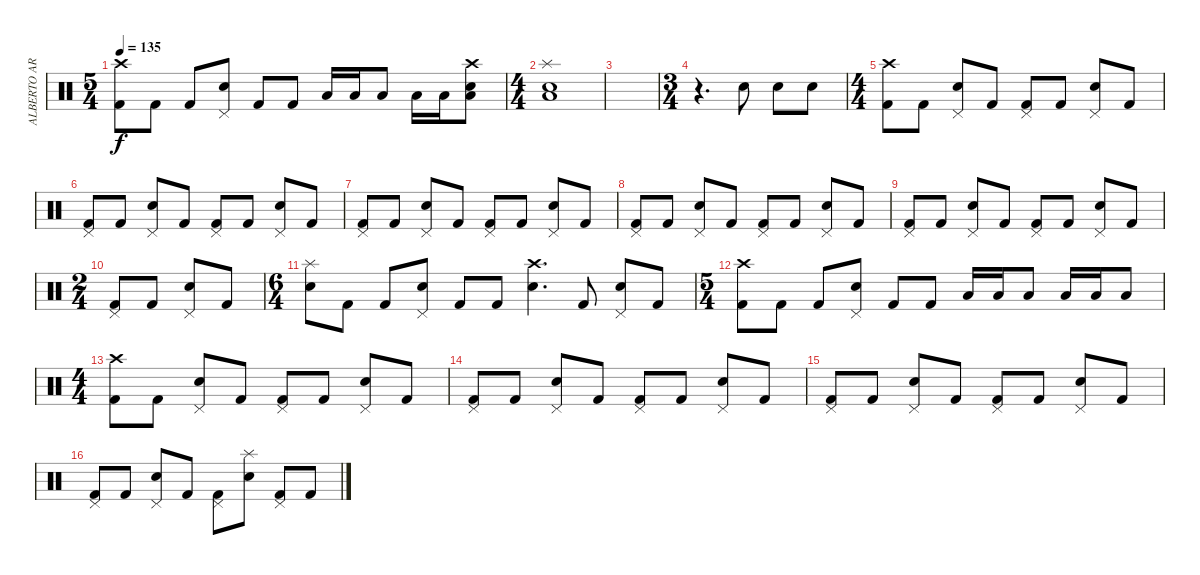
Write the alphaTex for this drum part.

\track ("ALBERTO ARDINES" "ALBERTO AR") {instrument percussion}
\staff {score}
\articulation defaults
\ts (5 4)
\tempo 135
\clef neutral
\ks c
("Crash high (hit)" "Kick (hit) 2").8{dy f} "Kick (hit) 2".8 "Kick (hit) 2".8 ("Pedal Hi-Hat (hit)" "Electric Snare (hit)").8 "Kick (hit) 2".8 "Kick (hit) 2".8 "Low Tom (hit)".16 "Low Tom (hit)".16 "Low Tom (hit)".8 "Low Tom (hit)".16 "Low Tom (hit)".16 ("Crash high (hit)" "Low Floor Tom (hit)" "Electric Snare (hit)").8 |
\ts (4 4)
("Splash (hit)" "Low Floor Tom (hit)" "Electric Snare (hit)").1 |
|
\ts (3 4)
r.4{d} "Electric Snare (hit)".8 "Electric Snare (hit)".8 "Electric Snare (hit)".8 |
\ts (4 4)
("Crash high (hit)" "Kick (hit) 2").8 "Kick (hit) 2".8 ("Pedal Hi-Hat (hit)" "Electric Snare (hit)").8 "Kick (hit) 2".8 ("Pedal Hi-Hat (hit)" "Kick (hit) 2").8 "Kick (hit) 2".8 ("Pedal Hi-Hat (hit)" "Electric Snare (hit)").8 "Kick (hit) 2".8 |
("Pedal Hi-Hat (hit)" "Kick (hit) 2").8 "Kick (hit) 2".8 ("Pedal Hi-Hat (hit)" "Electric Snare (hit)").8 "Kick (hit) 2".8 ("Pedal Hi-Hat (hit)" "Kick (hit) 2").8 "Kick (hit) 2".8 ("Pedal Hi-Hat (hit)" "Electric Snare (hit)").8 "Kick (hit) 2".8 |
("Pedal Hi-Hat (hit)" "Kick (hit) 2").8 "Kick (hit) 2".8 ("Pedal Hi-Hat (hit)" "Electric Snare (hit)").8 "Kick (hit) 2".8 ("Pedal Hi-Hat (hit)" "Kick (hit) 2").8 "Kick (hit) 2".8 ("Pedal Hi-Hat (hit)" "Electric Snare (hit)").8 "Kick (hit) 2".8 |
("Pedal Hi-Hat (hit)" "Kick (hit) 2").8 "Kick (hit) 2".8 ("Pedal Hi-Hat (hit)" "Electric Snare (hit)").8 "Kick (hit) 2".8 ("Pedal Hi-Hat (hit)" "Kick (hit) 2").8 "Kick (hit) 2".8 ("Pedal Hi-Hat (hit)" "Electric Snare (hit)").8 "Kick (hit) 2".8 |
("Pedal Hi-Hat (hit)" "Kick (hit) 2").8 "Kick (hit) 2".8 ("Pedal Hi-Hat (hit)" "Electric Snare (hit)").8 "Kick (hit) 2".8 ("Pedal Hi-Hat (hit)" "Kick (hit) 2").8 "Kick (hit) 2".8 ("Pedal Hi-Hat (hit)" "Electric Snare (hit)").8 "Kick (hit) 2".8 |
\ts (2 4)
("Pedal Hi-Hat (hit)" "Kick (hit) 2").8 "Kick (hit) 2".8 ("Pedal Hi-Hat (hit)" "Electric Snare (hit)").8 "Kick (hit) 2".8 |
\ts (6 4)
("Splash (hit)" "Electric Snare (hit)").8 "Kick (hit) 2".8 "Kick (hit) 2".8 ("Pedal Hi-Hat (hit)" "Electric Snare (hit)").8 "Kick (hit) 2".8 "Kick (hit) 2".8 ("Crash high (hit)" "Electric Snare (hit)").4{d} "Kick (hit) 2".8 ("Pedal Hi-Hat (hit)" "Electric Snare (hit)").8 "Kick (hit) 2".8 |
\ts (5 4)
("Crash high (hit)" "Kick (hit) 2").8 "Kick (hit) 2".8 "Kick (hit) 2".8 ("Pedal Hi-Hat (hit)" "Electric Snare (hit)").8 "Kick (hit) 2".8 "Kick (hit) 2".8 "Low Tom (hit)".16 "Low Tom (hit)".16 "Low Tom (hit)".8 "Low Tom (hit)".16 "Low Tom (hit)".16 "Low Tom (hit)".8 |
\ts (4 4)
("Crash high (hit)" "Kick (hit) 2").8 "Kick (hit) 2".8 ("Pedal Hi-Hat (hit)" "Electric Snare (hit)").8 "Kick (hit) 2".8 ("Pedal Hi-Hat (hit)" "Kick (hit) 2").8 "Kick (hit) 2".8 ("Pedal Hi-Hat (hit)" "Electric Snare (hit)").8 "Kick (hit) 2".8 |
("Pedal Hi-Hat (hit)" "Kick (hit) 2").8 "Kick (hit) 2".8 ("Pedal Hi-Hat (hit)" "Electric Snare (hit)").8 "Kick (hit) 2".8 ("Pedal Hi-Hat (hit)" "Kick (hit) 2").8 "Kick (hit) 2".8 ("Pedal Hi-Hat (hit)" "Electric Snare (hit)").8 "Kick (hit) 2".8 |
("Pedal Hi-Hat (hit)" "Kick (hit) 2").8 "Kick (hit) 2".8 ("Pedal Hi-Hat (hit)" "Electric Snare (hit)").8 "Kick (hit) 2".8 ("Pedal Hi-Hat (hit)" "Kick (hit) 2").8 "Kick (hit) 2".8 ("Pedal Hi-Hat (hit)" "Electric Snare (hit)").8 "Kick (hit) 2".8 |
("Pedal Hi-Hat (hit)" "Kick (hit) 2").8 "Kick (hit) 2".8 ("Pedal Hi-Hat (hit)" "Electric Snare (hit)").8 "Kick (hit) 2".8 ("Pedal Hi-Hat (hit)" "Kick (hit) 2").8 ("Splash (hit)" "Electric Snare (hit)").8 ("Pedal Hi-Hat (hit)" "Kick (hit) 2").8 "Kick (hit) 2".8
